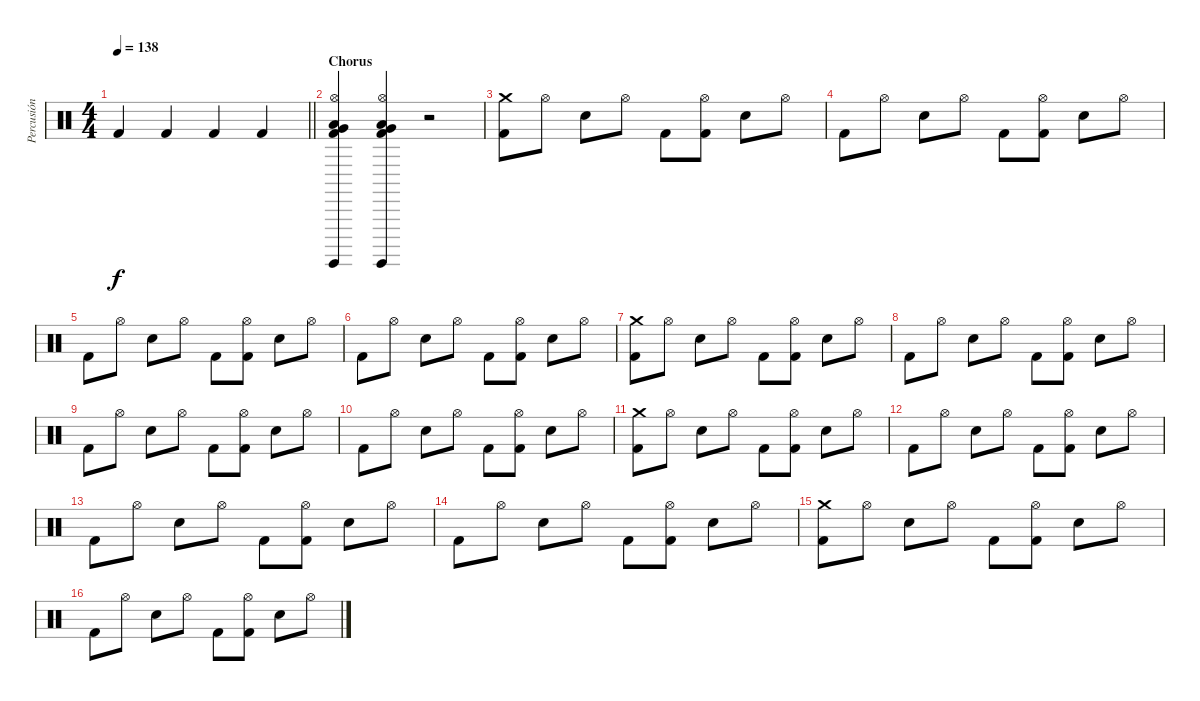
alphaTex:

\track ("Percusión" "Percusión") {instrument percussion}
\staff {score}
\articulation defaults
\ts (4 4)
\tempo 138
\clef neutral
\barLineRight lightlight
\ks c "Kick (hit) 2".4{dy f} "Kick (hit) 2".4 "Kick (hit) 2".4 "Kick (hit) 2".4
|
\section ("" "Chorus")
("Hi-Hat (open)" "Low Tom (hit)" "Surdo (hit)" "Very Low Tom (hit)" "Kick (hit) 2").4 ("Hi-Hat (open)" "Low Tom (hit)" "Surdo (hit)" "Very Low Tom (hit)" "Kick (hit) 2").4 r.2 |
("Crash medium (hit)" "Kick (hit) 2").8 "Hi-Hat (open)".8 "Electric Snare (hit)".8 "Hi-Hat (open)".8 "Kick (hit) 2".8 ("Hi-Hat (open)" "Kick (hit) 2").8 "Electric Snare (hit)".8 "Hi-Hat (open)".8 |
"Kick (hit) 2".8 "Hi-Hat (open)".8 "Electric Snare (hit)".8 "Hi-Hat (open)".8 "Kick (hit) 2".8 ("Hi-Hat (open)" "Kick (hit) 2").8 "Electric Snare (hit)".8 "Hi-Hat (open)".8 |
"Kick (hit) 2".8 "Hi-Hat (open)".8 "Electric Snare (hit)".8 "Hi-Hat (open)".8 "Kick (hit) 2".8 ("Hi-Hat (open)" "Kick (hit) 2").8 "Electric Snare (hit)".8 "Hi-Hat (open)".8 |
"Kick (hit) 2".8 "Hi-Hat (open)".8 "Electric Snare (hit)".8 "Hi-Hat (open)".8 "Kick (hit) 2".8 ("Hi-Hat (open)" "Kick (hit) 2").8 "Electric Snare (hit)".8 "Hi-Hat (open)".8 |
("Crash medium (hit)" "Kick (hit) 2").8 "Hi-Hat (open)".8 "Electric Snare (hit)".8 "Hi-Hat (open)".8 "Kick (hit) 2".8 ("Hi-Hat (open)" "Kick (hit) 2").8 "Electric Snare (hit)".8 "Hi-Hat (open)".8 |
"Kick (hit) 2".8 "Hi-Hat (open)".8 "Electric Snare (hit)".8 "Hi-Hat (open)".8 "Kick (hit) 2".8 ("Hi-Hat (open)" "Kick (hit) 2").8 "Electric Snare (hit)".8 "Hi-Hat (open)".8 |
"Kick (hit) 2".8 "Hi-Hat (open)".8 "Electric Snare (hit)".8 "Hi-Hat (open)".8 "Kick (hit) 2".8 ("Hi-Hat (open)" "Kick (hit) 2").8 "Electric Snare (hit)".8 "Hi-Hat (open)".8 |
"Kick (hit) 2".8 "Hi-Hat (open)".8 "Electric Snare (hit)".8 "Hi-Hat (open)".8 "Kick (hit) 2".8 ("Hi-Hat (open)" "Kick (hit) 2").8 "Electric Snare (hit)".8 "Hi-Hat (open)".8 |
("Crash medium (hit)" "Kick (hit) 2").8 "Hi-Hat (open)".8 "Electric Snare (hit)".8 "Hi-Hat (open)".8 "Kick (hit) 2".8 ("Hi-Hat (open)" "Kick (hit) 2").8 "Electric Snare (hit)".8 "Hi-Hat (open)".8 |
"Kick (hit) 2".8 "Hi-Hat (open)".8 "Electric Snare (hit)".8 "Hi-Hat (open)".8 "Kick (hit) 2".8 ("Hi-Hat (open)" "Kick (hit) 2").8 "Electric Snare (hit)".8 "Hi-Hat (open)".8 |
"Kick (hit) 2".8 "Hi-Hat (open)".8 "Electric Snare (hit)".8 "Hi-Hat (open)".8 "Kick (hit) 2".8 ("Hi-Hat (open)" "Kick (hit) 2").8 "Electric Snare (hit)".8 "Hi-Hat (open)".8 |
"Kick (hit) 2".8 "Hi-Hat (open)".8 "Electric Snare (hit)".8 "Hi-Hat (open)".8 "Kick (hit) 2".8 ("Hi-Hat (open)" "Kick (hit) 2").8 "Electric Snare (hit)".8 "Hi-Hat (open)".8 |
("Crash medium (hit)" "Kick (hit) 2").8 "Hi-Hat (open)".8 "Electric Snare (hit)".8 "Hi-Hat (open)".8 "Kick (hit) 2".8 ("Hi-Hat (open)" "Kick (hit) 2").8 "Electric Snare (hit)".8 "Hi-Hat (open)".8 |
"Kick (hit) 2".8 "Hi-Hat (open)".8 "Electric Snare (hit)".8 "Hi-Hat (open)".8 "Kick (hit) 2".8 ("Hi-Hat (open)" "Kick (hit) 2").8 "Electric Snare (hit)".8 "Hi-Hat (open)".8
